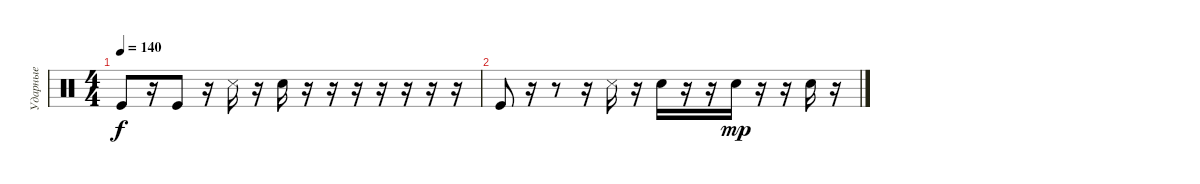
\track ("Ударные" "Ударные") {instrument percussion}
\staff {score}
\articulation defaults
\ts (4 4)
\tempo 140
\clef neutral
\ks c "Kick (hit)".8{dy f}
r.16 "Kick (hit)".8 r.16 "Metronome (hit)".16 r.16 "Electric Snare (hit)".16 r.16 r.16 r.16 r.16 r.16 r.16 r.16 |
"Kick (hit)".8 r.16 r.8 r.16 "Metronome (hit)".16 r.16 "Electric Snare (hit)".16 r.16 r.16 "Electric Snare (hit)".16{dy mp} r.16 r.16 "Electric Snare (hit)".16 r.16
